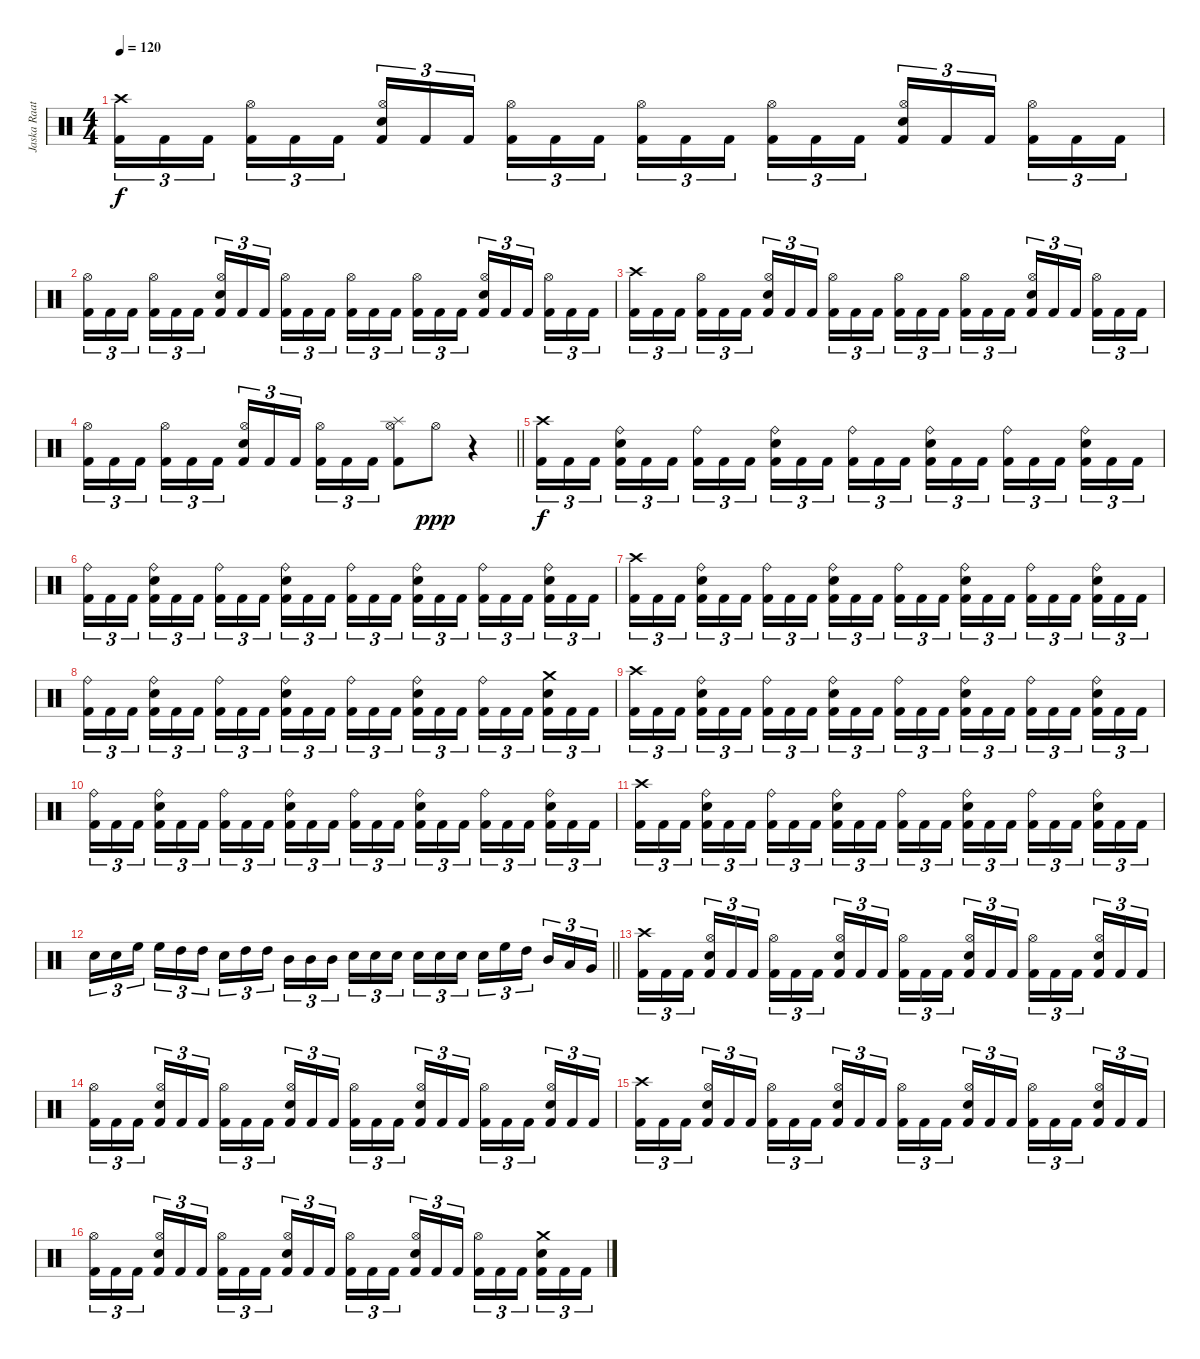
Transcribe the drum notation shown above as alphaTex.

\track ("Jaska Raatikainen" "Jaska Raat") {instrument percussion}
\staff {score}
\articulation defaults
\ts (4 4)
\tempo 120
\clef neutral
\ks c
("Crash high (hit)" "Kick (hit) 2").16{tu (3 2) dy f} "Kick (hit) 2".16{tu (3 2)} "Kick (hit) 2".16{tu (3 2)} ("Hi-Hat (open)" "Kick (hit) 2").16{tu (3 2)} "Kick (hit) 2".16{tu (3 2)} "Kick (hit) 2".16{tu (3 2)} ("Hi-Hat (open)" "Electric Snare (hit)" "Kick (hit) 2").16{tu (3 2)} "Kick (hit) 2".16{tu (3 2)} "Kick (hit) 2".16{tu (3 2)} ("Hi-Hat (open)" "Kick (hit) 2").16{tu (3 2)} "Kick (hit) 2".16{tu (3 2)} "Kick (hit) 2".16{tu (3 2)} ("Hi-Hat (open)" "Kick (hit) 2").16{tu (3 2)} "Kick (hit) 2".16{tu (3 2)} "Kick (hit) 2".16{tu (3 2)} ("Hi-Hat (open)" "Kick (hit) 2").16{tu (3 2)} "Kick (hit) 2".16{tu (3 2)} "Kick (hit) 2".16{tu (3 2)} ("Hi-Hat (open)" "Electric Snare (hit)" "Kick (hit) 2").16{tu (3 2)} "Kick (hit) 2".16{tu (3 2)} "Kick (hit) 2".16{tu (3 2)} ("Hi-Hat (open)" "Kick (hit) 2").16{tu (3 2)} "Kick (hit) 2".16{tu (3 2)} "Kick (hit) 2".16{tu (3 2)} |
("Hi-Hat (open)" "Kick (hit) 2").16{tu (3 2)} "Kick (hit) 2".16{tu (3 2)} "Kick (hit) 2".16{tu (3 2)} ("Hi-Hat (open)" "Kick (hit) 2").16{tu (3 2)} "Kick (hit) 2".16{tu (3 2)} "Kick (hit) 2".16{tu (3 2)} ("Hi-Hat (open)" "Electric Snare (hit)" "Kick (hit) 2").16{tu (3 2)} "Kick (hit) 2".16{tu (3 2)} "Kick (hit) 2".16{tu (3 2)} ("Hi-Hat (open)" "Kick (hit) 2").16{tu (3 2)} "Kick (hit) 2".16{tu (3 2)} "Kick (hit) 2".16{tu (3 2)} ("Hi-Hat (open)" "Kick (hit) 2").16{tu (3 2)} "Kick (hit) 2".16{tu (3 2)} "Kick (hit) 2".16{tu (3 2)} ("Hi-Hat (open)" "Kick (hit) 2").16{tu (3 2)} "Kick (hit) 2".16{tu (3 2)} "Kick (hit) 2".16{tu (3 2)} ("Hi-Hat (open)" "Electric Snare (hit)" "Kick (hit) 2").16{tu (3 2)} "Kick (hit) 2".16{tu (3 2)} "Kick (hit) 2".16{tu (3 2)} ("Hi-Hat (open)" "Kick (hit) 2").16{tu (3 2)} "Kick (hit) 2".16{tu (3 2)} "Kick (hit) 2".16{tu (3 2)} |
("Crash high (hit)" "Kick (hit) 2").16{tu (3 2)} "Kick (hit) 2".16{tu (3 2)} "Kick (hit) 2".16{tu (3 2)} ("Hi-Hat (open)" "Kick (hit) 2").16{tu (3 2)} "Kick (hit) 2".16{tu (3 2)} "Kick (hit) 2".16{tu (3 2)} ("Hi-Hat (open)" "Electric Snare (hit)" "Kick (hit) 2").16{tu (3 2)} "Kick (hit) 2".16{tu (3 2)} "Kick (hit) 2".16{tu (3 2)} ("Hi-Hat (open)" "Kick (hit) 2").16{tu (3 2)} "Kick (hit) 2".16{tu (3 2)} "Kick (hit) 2".16{tu (3 2)} ("Hi-Hat (open)" "Kick (hit) 2").16{tu (3 2)} "Kick (hit) 2".16{tu (3 2)} "Kick (hit) 2".16{tu (3 2)} ("Hi-Hat (open)" "Kick (hit) 2").16{tu (3 2)} "Kick (hit) 2".16{tu (3 2)} "Kick (hit) 2".16{tu (3 2)} ("Hi-Hat (open)" "Electric Snare (hit)" "Kick (hit) 2").16{tu (3 2)} "Kick (hit) 2".16{tu (3 2)} "Kick (hit) 2".16{tu (3 2)} ("Hi-Hat (open)" "Kick (hit) 2").16{tu (3 2)} "Kick (hit) 2".16{tu (3 2)} "Kick (hit) 2".16{tu (3 2)} |
\barLineRight lightlight
("Hi-Hat (open)" "Kick (hit) 2").16{tu (3 2)} "Kick (hit) 2".16{tu (3 2)} "Kick (hit) 2".16{tu (3 2)} ("Hi-Hat (open)" "Kick (hit) 2").16{tu (3 2)} "Kick (hit) 2".16{tu (3 2)} "Kick (hit) 2".16{tu (3 2)} ("Hi-Hat (open)" "Electric Snare (hit)" "Kick (hit) 2").16{tu (3 2)} "Kick (hit) 2".16{tu (3 2)} "Kick (hit) 2".16{tu (3 2)} ("Hi-Hat (open)" "Kick (hit) 2").16{tu (3 2)} "Kick (hit) 2".16{tu (3 2)} "Kick (hit) 2".16{tu (3 2)} ("Splash (hit)" "Hi-Hat (open)" "Kick (hit) 2").8 "Hi-Hat (open)".8{dy ppp} r.4 |
("Crash high (hit)" "Kick (hit) 2").16{tu (3 2) dy f} "Kick (hit) 2".16{tu (3 2)} "Kick (hit) 2".16{tu (3 2)} ("Ride (bell)" "Electric Snare (hit)" "Kick (hit) 2").16{tu (3 2)} "Kick (hit) 2".16{tu (3 2)} "Kick (hit) 2".16{tu (3 2)} ("Ride (bell)" "Kick (hit) 2").16{tu (3 2)} "Kick (hit) 2".16{tu (3 2)} "Kick (hit) 2".16{tu (3 2)} ("Ride (bell)" "Electric Snare (hit)" "Kick (hit) 2").16{tu (3 2)} "Kick (hit) 2".16{tu (3 2)} "Kick (hit) 2".16{tu (3 2)} ("Ride (bell)" "Kick (hit) 2").16{tu (3 2)} "Kick (hit) 2".16{tu (3 2)} "Kick (hit) 2".16{tu (3 2)} ("Ride (bell)" "Electric Snare (hit)" "Kick (hit) 2").16{tu (3 2)} "Kick (hit) 2".16{tu (3 2)} "Kick (hit) 2".16{tu (3 2)} ("Ride (bell)" "Kick (hit) 2").16{tu (3 2)} "Kick (hit) 2".16{tu (3 2)} "Kick (hit) 2".16{tu (3 2)} ("Ride (bell)" "Electric Snare (hit)" "Kick (hit) 2").16{tu (3 2)} "Kick (hit) 2".16{tu (3 2)} "Kick (hit) 2".16{tu (3 2)} |
("Ride (bell)" "Kick (hit) 2").16{tu (3 2)} "Kick (hit) 2".16{tu (3 2)} "Kick (hit) 2".16{tu (3 2)} ("Ride (bell)" "Electric Snare (hit)" "Kick (hit) 2").16{tu (3 2)} "Kick (hit) 2".16{tu (3 2)} "Kick (hit) 2".16{tu (3 2)} ("Ride (bell)" "Kick (hit) 2").16{tu (3 2)} "Kick (hit) 2".16{tu (3 2)} "Kick (hit) 2".16{tu (3 2)} ("Ride (bell)" "Electric Snare (hit)" "Kick (hit) 2").16{tu (3 2)} "Kick (hit) 2".16{tu (3 2)} "Kick (hit) 2".16{tu (3 2)} ("Ride (bell)" "Kick (hit) 2").16{tu (3 2)} "Kick (hit) 2".16{tu (3 2)} "Kick (hit) 2".16{tu (3 2)} ("Ride (bell)" "Electric Snare (hit)" "Kick (hit) 2").16{tu (3 2)} "Kick (hit) 2".16{tu (3 2)} "Kick (hit) 2".16{tu (3 2)} ("Ride (bell)" "Kick (hit) 2").16{tu (3 2)} "Kick (hit) 2".16{tu (3 2)} "Kick (hit) 2".16{tu (3 2)} ("Ride (bell)" "Electric Snare (hit)" "Kick (hit) 2").16{tu (3 2)} "Kick (hit) 2".16{tu (3 2)} "Kick (hit) 2".16{tu (3 2)} |
("Crash high (hit)" "Kick (hit) 2").16{tu (3 2)} "Kick (hit) 2".16{tu (3 2)} "Kick (hit) 2".16{tu (3 2)} ("Ride (bell)" "Electric Snare (hit)" "Kick (hit) 2").16{tu (3 2)} "Kick (hit) 2".16{tu (3 2)} "Kick (hit) 2".16{tu (3 2)} ("Ride (bell)" "Kick (hit) 2").16{tu (3 2)} "Kick (hit) 2".16{tu (3 2)} "Kick (hit) 2".16{tu (3 2)} ("Ride (bell)" "Electric Snare (hit)" "Kick (hit) 2").16{tu (3 2)} "Kick (hit) 2".16{tu (3 2)} "Kick (hit) 2".16{tu (3 2)} ("Ride (bell)" "Kick (hit) 2").16{tu (3 2)} "Kick (hit) 2".16{tu (3 2)} "Kick (hit) 2".16{tu (3 2)} ("Ride (bell)" "Electric Snare (hit)" "Kick (hit) 2").16{tu (3 2)} "Kick (hit) 2".16{tu (3 2)} "Kick (hit) 2".16{tu (3 2)} ("Ride (bell)" "Kick (hit) 2").16{tu (3 2)} "Kick (hit) 2".16{tu (3 2)} "Kick (hit) 2".16{tu (3 2)} ("Ride (bell)" "Electric Snare (hit)" "Kick (hit) 2").16{tu (3 2)} "Kick (hit) 2".16{tu (3 2)} "Kick (hit) 2".16{tu (3 2)} |
("Ride (bell)" "Kick (hit) 2").16{tu (3 2)} "Kick (hit) 2".16{tu (3 2)} "Kick (hit) 2".16{tu (3 2)} ("Ride (bell)" "Electric Snare (hit)" "Kick (hit) 2").16{tu (3 2)} "Kick (hit) 2".16{tu (3 2)} "Kick (hit) 2".16{tu (3 2)} ("Ride (bell)" "Kick (hit) 2").16{tu (3 2)} "Kick (hit) 2".16{tu (3 2)} "Kick (hit) 2".16{tu (3 2)} ("Ride (bell)" "Electric Snare (hit)" "Kick (hit) 2").16{tu (3 2)} "Kick (hit) 2".16{tu (3 2)} "Kick (hit) 2".16{tu (3 2)} ("Ride (bell)" "Kick (hit) 2").16{tu (3 2)} "Kick (hit) 2".16{tu (3 2)} "Kick (hit) 2".16{tu (3 2)} ("Ride (bell)" "Electric Snare (hit)" "Kick (hit) 2").16{tu (3 2)} "Kick (hit) 2".16{tu (3 2)} "Kick (hit) 2".16{tu (3 2)} ("Ride (bell)" "Kick (hit) 2").16{tu (3 2)} "Kick (hit) 2".16{tu (3 2)} "Kick (hit) 2".16{tu (3 2)} ("Crash medium (hit)" "Electric Snare (hit)" "Kick (hit) 2").16{tu (3 2)} "Kick (hit) 2".16{tu (3 2)} "Kick (hit) 2".16{tu (3 2)} |
("Crash high (hit)" "Kick (hit) 2").16{tu (3 2)} "Kick (hit) 2".16{tu (3 2)} "Kick (hit) 2".16{tu (3 2)} ("Ride (bell)" "Electric Snare (hit)" "Kick (hit) 2").16{tu (3 2)} "Kick (hit) 2".16{tu (3 2)} "Kick (hit) 2".16{tu (3 2)} ("Ride (bell)" "Kick (hit) 2").16{tu (3 2)} "Kick (hit) 2".16{tu (3 2)} "Kick (hit) 2".16{tu (3 2)} ("Ride (bell)" "Electric Snare (hit)" "Kick (hit) 2").16{tu (3 2)} "Kick (hit) 2".16{tu (3 2)} "Kick (hit) 2".16{tu (3 2)} ("Ride (bell)" "Kick (hit) 2").16{tu (3 2)} "Kick (hit) 2".16{tu (3 2)} "Kick (hit) 2".16{tu (3 2)} ("Ride (bell)" "Electric Snare (hit)" "Kick (hit) 2").16{tu (3 2)} "Kick (hit) 2".16{tu (3 2)} "Kick (hit) 2".16{tu (3 2)} ("Ride (bell)" "Kick (hit) 2").16{tu (3 2)} "Kick (hit) 2".16{tu (3 2)} "Kick (hit) 2".16{tu (3 2)} ("Ride (bell)" "Electric Snare (hit)" "Kick (hit) 2").16{tu (3 2)} "Kick (hit) 2".16{tu (3 2)} "Kick (hit) 2".16{tu (3 2)} |
("Ride (bell)" "Kick (hit) 2").16{tu (3 2)} "Kick (hit) 2".16{tu (3 2)} "Kick (hit) 2".16{tu (3 2)} ("Ride (bell)" "Electric Snare (hit)" "Kick (hit) 2").16{tu (3 2)} "Kick (hit) 2".16{tu (3 2)} "Kick (hit) 2".16{tu (3 2)} ("Ride (bell)" "Kick (hit) 2").16{tu (3 2)} "Kick (hit) 2".16{tu (3 2)} "Kick (hit) 2".16{tu (3 2)} ("Ride (bell)" "Electric Snare (hit)" "Kick (hit) 2").16{tu (3 2)} "Kick (hit) 2".16{tu (3 2)} "Kick (hit) 2".16{tu (3 2)} ("Ride (bell)" "Kick (hit) 2").16{tu (3 2)} "Kick (hit) 2".16{tu (3 2)} "Kick (hit) 2".16{tu (3 2)} ("Ride (bell)" "Electric Snare (hit)" "Kick (hit) 2").16{tu (3 2)} "Kick (hit) 2".16{tu (3 2)} "Kick (hit) 2".16{tu (3 2)} ("Ride (bell)" "Kick (hit) 2").16{tu (3 2)} "Kick (hit) 2".16{tu (3 2)} "Kick (hit) 2".16{tu (3 2)} ("Ride (bell)" "Electric Snare (hit)" "Kick (hit) 2").16{tu (3 2)} "Kick (hit) 2".16{tu (3 2)} "Kick (hit) 2".16{tu (3 2)} |
("Crash high (hit)" "Kick (hit) 2").16{tu (3 2)} "Kick (hit) 2".16{tu (3 2)} "Kick (hit) 2".16{tu (3 2)} ("Ride (bell)" "Electric Snare (hit)" "Kick (hit) 2").16{tu (3 2)} "Kick (hit) 2".16{tu (3 2)} "Kick (hit) 2".16{tu (3 2)} ("Ride (bell)" "Kick (hit) 2").16{tu (3 2)} "Kick (hit) 2".16{tu (3 2)} "Kick (hit) 2".16{tu (3 2)} ("Ride (bell)" "Electric Snare (hit)" "Kick (hit) 2").16{tu (3 2)} "Kick (hit) 2".16{tu (3 2)} "Kick (hit) 2".16{tu (3 2)} ("Ride (bell)" "Kick (hit) 2").16{tu (3 2)} "Kick (hit) 2".16{tu (3 2)} "Kick (hit) 2".16{tu (3 2)} ("Ride (bell)" "Electric Snare (hit)" "Kick (hit) 2").16{tu (3 2)} "Kick (hit) 2".16{tu (3 2)} "Kick (hit) 2".16{tu (3 2)} ("Ride (bell)" "Kick (hit) 2").16{tu (3 2)} "Kick (hit) 2".16{tu (3 2)} "Kick (hit) 2".16{tu (3 2)} ("Ride (bell)" "Electric Snare (hit)" "Kick (hit) 2").16{tu (3 2)} "Kick (hit) 2".16{tu (3 2)} "Kick (hit) 2".16{tu (3 2)} |
\barLineRight lightlight "Electric Snare (hit)".16{tu (3 2)} "Electric Snare (hit)".16{tu (3 2)} "High Floor Tom (hit)".16{tu (3 2)} "High Floor Tom (hit)".16{tu (3 2)} "High Tom (hit)".16{tu (3 2)} "High Tom (hit)".16{tu (3 2)} "Electric Snare (hit)".16{tu (3 2)} "High Tom (hit)".16{tu (3 2)} "High Tom (hit)".16{tu (3 2)} "Mid Tom (hit)".16{tu (3 2)} "Mid Tom (hit)".16{tu (3 2)} "Mid Tom (hit)".16{tu (3 2)} "Electric Snare (hit)".16{tu (3 2)} "Electric Snare (hit)".16{tu (3 2)} "Electric Snare (hit)".16{tu (3 2)} "Electric Snare (hit)".16{tu (3 2)} "Electric Snare (hit)".16{tu (3 2)} "Electric Snare (hit)".16{tu (3 2)} "Electric Snare (hit)".16{tu (3 2)} "High Floor Tom (hit)".16{tu (3 2)} "High Tom (hit)".16{tu (3 2)} "Mid Tom (hit)".16{tu (3 2)} "Low Tom (hit)".16{tu (3 2)} "Very Low Tom (hit)".16{tu (3 2)}
|
("Crash high (hit)" "Kick (hit) 2").16{tu (3 2)} "Kick (hit) 2".16{tu (3 2)} "Kick (hit) 2".16{tu (3 2)} ("Hi-Hat (open)" "Electric Snare (hit)" "Kick (hit) 2").16{tu (3 2)} "Kick (hit) 2".16{tu (3 2)} "Kick (hit) 2".16{tu (3 2)} ("Hi-Hat (open)" "Kick (hit) 2").16{tu (3 2)} "Kick (hit) 2".16{tu (3 2)} "Kick (hit) 2".16{tu (3 2)} ("Hi-Hat (open)" "Electric Snare (hit)" "Kick (hit) 2").16{tu (3 2)} "Kick (hit) 2".16{tu (3 2)} "Kick (hit) 2".16{tu (3 2)} ("Hi-Hat (open)" "Kick (hit) 2").16{tu (3 2)} "Kick (hit) 2".16{tu (3 2)} "Kick (hit) 2".16{tu (3 2)} ("Hi-Hat (open)" "Electric Snare (hit)" "Kick (hit) 2").16{tu (3 2)} "Kick (hit) 2".16{tu (3 2)} "Kick (hit) 2".16{tu (3 2)} ("Hi-Hat (open)" "Kick (hit) 2").16{tu (3 2)} "Kick (hit) 2".16{tu (3 2)} "Kick (hit) 2".16{tu (3 2)} ("Hi-Hat (open)" "Electric Snare (hit)" "Kick (hit) 2").16{tu (3 2)} "Kick (hit) 2".16{tu (3 2)} "Kick (hit) 2".16{tu (3 2)} |
("Hi-Hat (open)" "Kick (hit) 2").16{tu (3 2)} "Kick (hit) 2".16{tu (3 2)} "Kick (hit) 2".16{tu (3 2)} ("Hi-Hat (open)" "Electric Snare (hit)" "Kick (hit) 2").16{tu (3 2)} "Kick (hit) 2".16{tu (3 2)} "Kick (hit) 2".16{tu (3 2)} ("Hi-Hat (open)" "Kick (hit) 2").16{tu (3 2)} "Kick (hit) 2".16{tu (3 2)} "Kick (hit) 2".16{tu (3 2)} ("Hi-Hat (open)" "Electric Snare (hit)" "Kick (hit) 2").16{tu (3 2)} "Kick (hit) 2".16{tu (3 2)} "Kick (hit) 2".16{tu (3 2)} ("Hi-Hat (open)" "Kick (hit) 2").16{tu (3 2)} "Kick (hit) 2".16{tu (3 2)} "Kick (hit) 2".16{tu (3 2)} ("Hi-Hat (open)" "Electric Snare (hit)" "Kick (hit) 2").16{tu (3 2)} "Kick (hit) 2".16{tu (3 2)} "Kick (hit) 2".16{tu (3 2)} ("Hi-Hat (open)" "Kick (hit) 2").16{tu (3 2)} "Kick (hit) 2".16{tu (3 2)} "Kick (hit) 2".16{tu (3 2)} ("Hi-Hat (open)" "Electric Snare (hit)" "Kick (hit) 2").16{tu (3 2)} "Kick (hit) 2".16{tu (3 2)} "Kick (hit) 2".16{tu (3 2)} |
("Crash high (hit)" "Kick (hit) 2").16{tu (3 2)} "Kick (hit) 2".16{tu (3 2)} "Kick (hit) 2".16{tu (3 2)} ("Hi-Hat (open)" "Electric Snare (hit)" "Kick (hit) 2").16{tu (3 2)} "Kick (hit) 2".16{tu (3 2)} "Kick (hit) 2".16{tu (3 2)} ("Hi-Hat (open)" "Kick (hit) 2").16{tu (3 2)} "Kick (hit) 2".16{tu (3 2)} "Kick (hit) 2".16{tu (3 2)} ("Hi-Hat (open)" "Electric Snare (hit)" "Kick (hit) 2").16{tu (3 2)} "Kick (hit) 2".16{tu (3 2)} "Kick (hit) 2".16{tu (3 2)} ("Hi-Hat (open)" "Kick (hit) 2").16{tu (3 2)} "Kick (hit) 2".16{tu (3 2)} "Kick (hit) 2".16{tu (3 2)} ("Hi-Hat (open)" "Electric Snare (hit)" "Kick (hit) 2").16{tu (3 2)} "Kick (hit) 2".16{tu (3 2)} "Kick (hit) 2".16{tu (3 2)} ("Hi-Hat (open)" "Kick (hit) 2").16{tu (3 2)} "Kick (hit) 2".16{tu (3 2)} "Kick (hit) 2".16{tu (3 2)} ("Hi-Hat (open)" "Electric Snare (hit)" "Kick (hit) 2").16{tu (3 2)} "Kick (hit) 2".16{tu (3 2)} "Kick (hit) 2".16{tu (3 2)} |
("Hi-Hat (open)" "Kick (hit) 2").16{tu (3 2)} "Kick (hit) 2".16{tu (3 2)} "Kick (hit) 2".16{tu (3 2)} ("Hi-Hat (open)" "Electric Snare (hit)" "Kick (hit) 2").16{tu (3 2)} "Kick (hit) 2".16{tu (3 2)} "Kick (hit) 2".16{tu (3 2)} ("Hi-Hat (open)" "Kick (hit) 2").16{tu (3 2)} "Kick (hit) 2".16{tu (3 2)} "Kick (hit) 2".16{tu (3 2)} ("Hi-Hat (open)" "Electric Snare (hit)" "Kick (hit) 2").16{tu (3 2)} "Kick (hit) 2".16{tu (3 2)} "Kick (hit) 2".16{tu (3 2)} ("Hi-Hat (open)" "Kick (hit) 2").16{tu (3 2)} "Kick (hit) 2".16{tu (3 2)} "Kick (hit) 2".16{tu (3 2)} ("Hi-Hat (open)" "Electric Snare (hit)" "Kick (hit) 2").16{tu (3 2)} "Kick (hit) 2".16{tu (3 2)} "Kick (hit) 2".16{tu (3 2)} ("Hi-Hat (open)" "Kick (hit) 2").16{tu (3 2)} "Kick (hit) 2".16{tu (3 2)} "Kick (hit) 2".16{tu (3 2)} ("Crash medium (hit)" "Electric Snare (hit)" "Kick (hit) 2").16{tu (3 2)} "Kick (hit) 2".16{tu (3 2)} "Kick (hit) 2".16{tu (3 2)}
